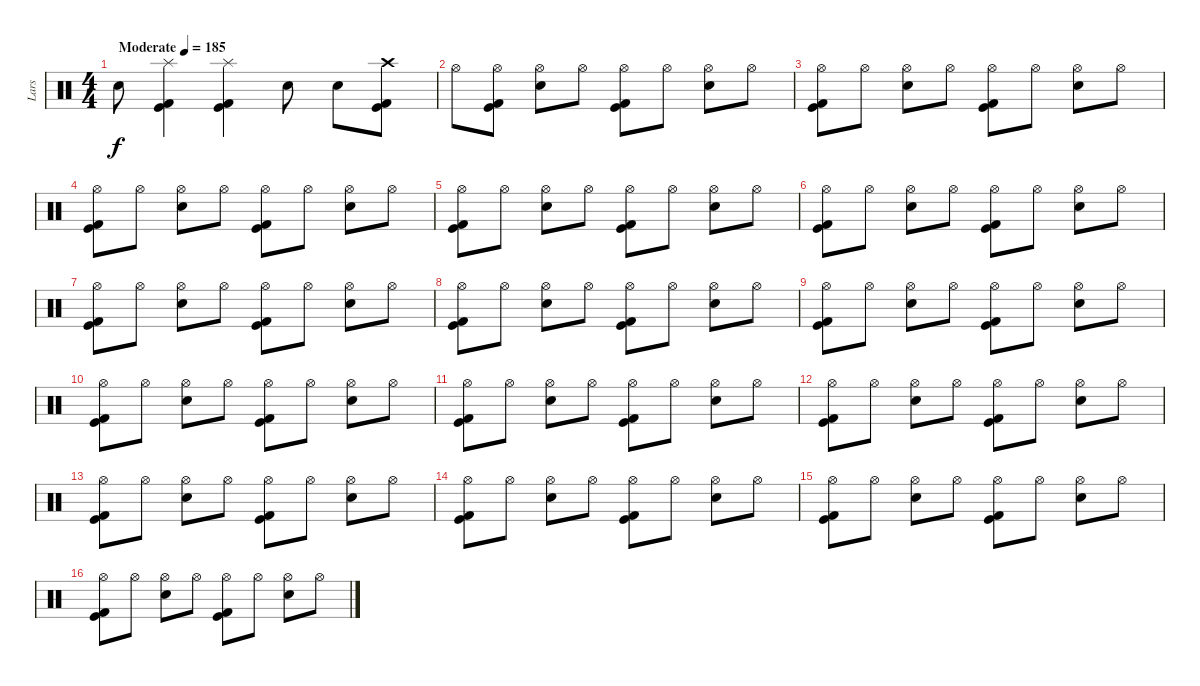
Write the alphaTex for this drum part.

\track ("Lars" "Lars") {instrument percussion}
\staff {score}
\articulation defaults
\ts (4 4)
\tempo (185 "Moderate")
\clef neutral
\ks c "Electric Snare (hit)".8{dy f}
("Splash (hit)" "Kick (hit)" "Kick (hit) 2").4 ("Splash (hit)" "Kick (hit)" "Kick (hit) 2").4 "Electric Snare (hit)".8 "Electric Snare (hit)".8 ("Crash high (hit)" "Kick (hit)" "Kick (hit) 2").8 |
"Hi-Hat (open)".8 ("Hi-Hat (open)" "Kick (hit)" "Kick (hit) 2").8 ("Hi-Hat (open)" "Electric Snare (hit)").8 "Hi-Hat (open)".8 ("Hi-Hat (open)" "Kick (hit)" "Kick (hit) 2").8 "Hi-Hat (open)".8 ("Hi-Hat (open)" "Electric Snare (hit)").8 "Hi-Hat (open)".8 |
("Hi-Hat (open)" "Kick (hit)" "Kick (hit) 2").8 "Hi-Hat (open)".8 ("Hi-Hat (open)" "Electric Snare (hit)").8 "Hi-Hat (open)".8 ("Hi-Hat (open)" "Kick (hit)" "Kick (hit) 2").8 "Hi-Hat (open)".8 ("Hi-Hat (open)" "Electric Snare (hit)").8 "Hi-Hat (open)".8 |
("Hi-Hat (open)" "Kick (hit)" "Kick (hit) 2").8 "Hi-Hat (open)".8 ("Hi-Hat (open)" "Electric Snare (hit)").8 "Hi-Hat (open)".8 ("Hi-Hat (open)" "Kick (hit)" "Kick (hit) 2").8 "Hi-Hat (open)".8 ("Hi-Hat (open)" "Electric Snare (hit)").8 "Hi-Hat (open)".8 |
("Hi-Hat (open)" "Kick (hit)" "Kick (hit) 2").8 "Hi-Hat (open)".8 ("Hi-Hat (open)" "Electric Snare (hit)").8 "Hi-Hat (open)".8 ("Hi-Hat (open)" "Kick (hit)" "Kick (hit) 2").8 "Hi-Hat (open)".8 ("Hi-Hat (open)" "Electric Snare (hit)").8 "Hi-Hat (open)".8 |
("Hi-Hat (open)" "Kick (hit)" "Kick (hit) 2").8 "Hi-Hat (open)".8 ("Hi-Hat (open)" "Electric Snare (hit)").8 "Hi-Hat (open)".8 ("Hi-Hat (open)" "Kick (hit)" "Kick (hit) 2").8 "Hi-Hat (open)".8 ("Hi-Hat (open)" "Electric Snare (hit)").8 "Hi-Hat (open)".8 |
("Hi-Hat (open)" "Kick (hit)" "Kick (hit) 2").8 "Hi-Hat (open)".8 ("Hi-Hat (open)" "Electric Snare (hit)").8 "Hi-Hat (open)".8 ("Hi-Hat (open)" "Kick (hit)" "Kick (hit) 2").8 "Hi-Hat (open)".8 ("Hi-Hat (open)" "Electric Snare (hit)").8 "Hi-Hat (open)".8 |
("Hi-Hat (open)" "Kick (hit)" "Kick (hit) 2").8 "Hi-Hat (open)".8 ("Hi-Hat (open)" "Electric Snare (hit)").8 "Hi-Hat (open)".8 ("Hi-Hat (open)" "Kick (hit)" "Kick (hit) 2").8 "Hi-Hat (open)".8 ("Hi-Hat (open)" "Electric Snare (hit)").8 "Hi-Hat (open)".8 |
("Hi-Hat (open)" "Kick (hit)" "Kick (hit) 2").8 "Hi-Hat (open)".8 ("Hi-Hat (open)" "Electric Snare (hit)").8 "Hi-Hat (open)".8 ("Hi-Hat (open)" "Kick (hit)" "Kick (hit) 2").8 "Hi-Hat (open)".8 ("Hi-Hat (open)" "Electric Snare (hit)").8 "Hi-Hat (open)".8 |
("Hi-Hat (open)" "Kick (hit)" "Kick (hit) 2").8 "Hi-Hat (open)".8 ("Hi-Hat (open)" "Electric Snare (hit)").8 "Hi-Hat (open)".8 ("Hi-Hat (open)" "Kick (hit)" "Kick (hit) 2").8 "Hi-Hat (open)".8 ("Hi-Hat (open)" "Electric Snare (hit)").8 "Hi-Hat (open)".8 |
("Hi-Hat (open)" "Kick (hit)" "Kick (hit) 2").8 "Hi-Hat (open)".8 ("Hi-Hat (open)" "Electric Snare (hit)").8 "Hi-Hat (open)".8 ("Hi-Hat (open)" "Kick (hit)" "Kick (hit) 2").8 "Hi-Hat (open)".8 ("Hi-Hat (open)" "Electric Snare (hit)").8 "Hi-Hat (open)".8 |
("Hi-Hat (open)" "Kick (hit)" "Kick (hit) 2").8 "Hi-Hat (open)".8 ("Hi-Hat (open)" "Electric Snare (hit)").8 "Hi-Hat (open)".8 ("Hi-Hat (open)" "Kick (hit)" "Kick (hit) 2").8 "Hi-Hat (open)".8 ("Hi-Hat (open)" "Electric Snare (hit)").8 "Hi-Hat (open)".8 |
("Hi-Hat (open)" "Kick (hit)" "Kick (hit) 2").8 "Hi-Hat (open)".8 ("Hi-Hat (open)" "Electric Snare (hit)").8 "Hi-Hat (open)".8 ("Hi-Hat (open)" "Kick (hit)" "Kick (hit) 2").8 "Hi-Hat (open)".8 ("Hi-Hat (open)" "Electric Snare (hit)").8 "Hi-Hat (open)".8 |
("Hi-Hat (open)" "Kick (hit)" "Kick (hit) 2").8 "Hi-Hat (open)".8 ("Hi-Hat (open)" "Electric Snare (hit)").8 "Hi-Hat (open)".8 ("Hi-Hat (open)" "Kick (hit)" "Kick (hit) 2").8 "Hi-Hat (open)".8 ("Hi-Hat (open)" "Electric Snare (hit)").8 "Hi-Hat (open)".8 |
("Hi-Hat (open)" "Kick (hit)" "Kick (hit) 2").8 "Hi-Hat (open)".8 ("Hi-Hat (open)" "Electric Snare (hit)").8 "Hi-Hat (open)".8 ("Hi-Hat (open)" "Kick (hit)" "Kick (hit) 2").8 "Hi-Hat (open)".8 ("Hi-Hat (open)" "Electric Snare (hit)").8 "Hi-Hat (open)".8 |
("Hi-Hat (open)" "Kick (hit)" "Kick (hit) 2").8 "Hi-Hat (open)".8 ("Hi-Hat (open)" "Electric Snare (hit)").8 "Hi-Hat (open)".8 ("Hi-Hat (open)" "Kick (hit)" "Kick (hit) 2").8 "Hi-Hat (open)".8 ("Hi-Hat (open)" "Electric Snare (hit)").8 "Hi-Hat (open)".8
